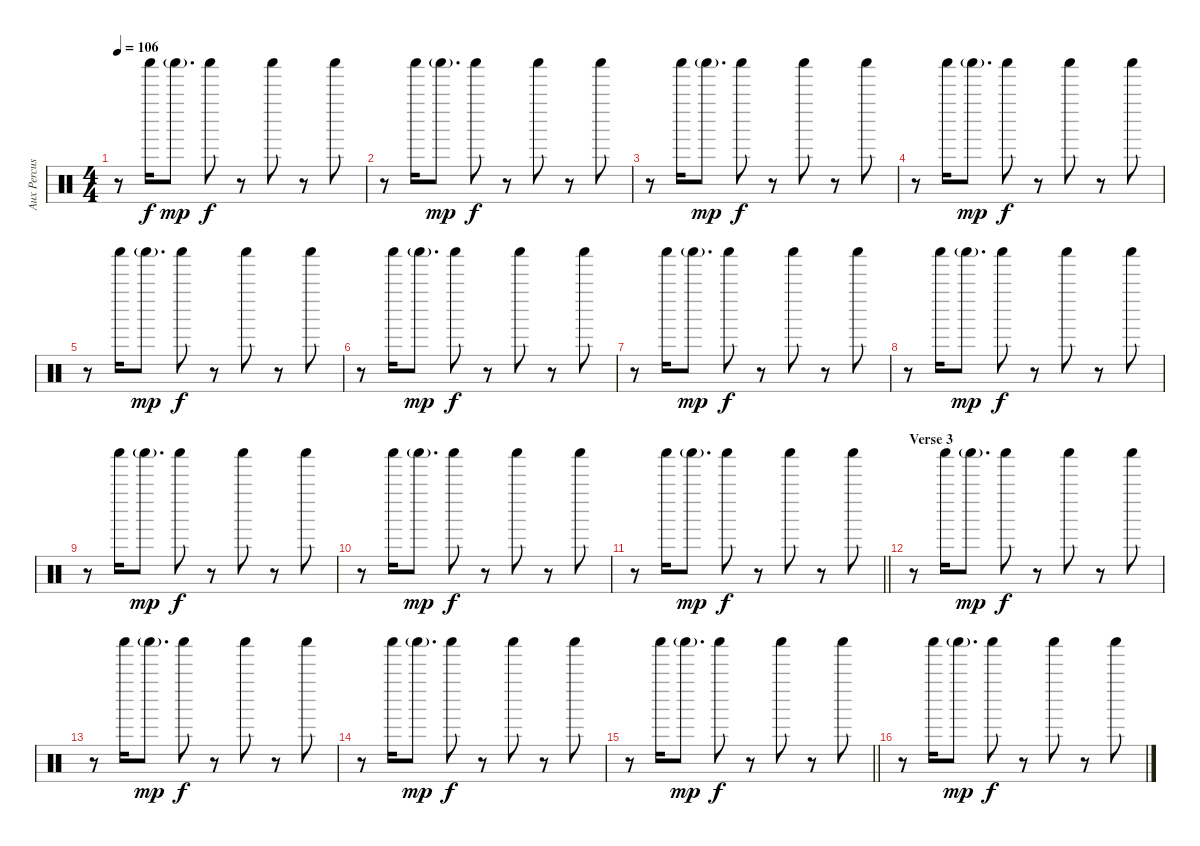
\track ("Aux Percussion" "Aux Percus") {instrument percussion}
\staff {score}
\articulation defaults
\ts (4 4)
\tempo 106
\clef neutral
\ks c
r.8{dy f} "Shaker (hit)".16 "Shaker (hit)"{g}.8{d dy mp} "Shaker (hit)".8{dy f} r.8 "Shaker (hit)".8 r.8 "Shaker (hit)".8 |
r.8 "Shaker (hit)".16 "Shaker (hit)"{g}.8{d dy mp} "Shaker (hit)".8{dy f} r.8 "Shaker (hit)".8 r.8 "Shaker (hit)".8 |
r.8 "Shaker (hit)".16 "Shaker (hit)"{g}.8{d dy mp} "Shaker (hit)".8{dy f} r.8 "Shaker (hit)".8 r.8 "Shaker (hit)".8 |
r.8 "Shaker (hit)".16 "Shaker (hit)"{g}.8{d dy mp} "Shaker (hit)".8{dy f} r.8 "Shaker (hit)".8 r.8 "Shaker (hit)".8 |
r.8 "Shaker (hit)".16 "Shaker (hit)"{g}.8{d dy mp} "Shaker (hit)".8{dy f} r.8 "Shaker (hit)".8 r.8 "Shaker (hit)".8 |
r.8 "Shaker (hit)".16 "Shaker (hit)"{g}.8{d dy mp} "Shaker (hit)".8{dy f} r.8 "Shaker (hit)".8 r.8 "Shaker (hit)".8 |
r.8 "Shaker (hit)".16 "Shaker (hit)"{g}.8{d dy mp} "Shaker (hit)".8{dy f} r.8 "Shaker (hit)".8 r.8 "Shaker (hit)".8 |
r.8 "Shaker (hit)".16 "Shaker (hit)"{g}.8{d dy mp} "Shaker (hit)".8{dy f} r.8 "Shaker (hit)".8 r.8 "Shaker (hit)".8 |
r.8 "Shaker (hit)".16 "Shaker (hit)"{g}.8{d dy mp} "Shaker (hit)".8{dy f} r.8 "Shaker (hit)".8 r.8 "Shaker (hit)".8 |
r.8 "Shaker (hit)".16 "Shaker (hit)"{g}.8{d dy mp} "Shaker (hit)".8{dy f} r.8 "Shaker (hit)".8 r.8 "Shaker (hit)".8 |
\barLineRight lightlight
r.8 "Shaker (hit)".16 "Shaker (hit)"{g}.8{d dy mp} "Shaker (hit)".8{dy f} r.8 "Shaker (hit)".8 r.8 "Shaker (hit)".8 |
\section ("" "Verse 3")
r.8 "Shaker (hit)".16 "Shaker (hit)"{g}.8{d dy mp} "Shaker (hit)".8{dy f} r.8 "Shaker (hit)".8 r.8 "Shaker (hit)".8 |
r.8 "Shaker (hit)".16 "Shaker (hit)"{g}.8{d dy mp} "Shaker (hit)".8{dy f} r.8 "Shaker (hit)".8 r.8 "Shaker (hit)".8 |
r.8 "Shaker (hit)".16 "Shaker (hit)"{g}.8{d dy mp} "Shaker (hit)".8{dy f} r.8 "Shaker (hit)".8 r.8 "Shaker (hit)".8 |
\barLineRight lightlight
r.8 "Shaker (hit)".16 "Shaker (hit)"{g}.8{d dy mp} "Shaker (hit)".8{dy f} r.8 "Shaker (hit)".8 r.8 "Shaker (hit)".8 |
r.8 "Shaker (hit)".16 "Shaker (hit)"{g}.8{d dy mp} "Shaker (hit)".8{dy f} r.8 "Shaker (hit)".8 r.8 "Shaker (hit)".8
